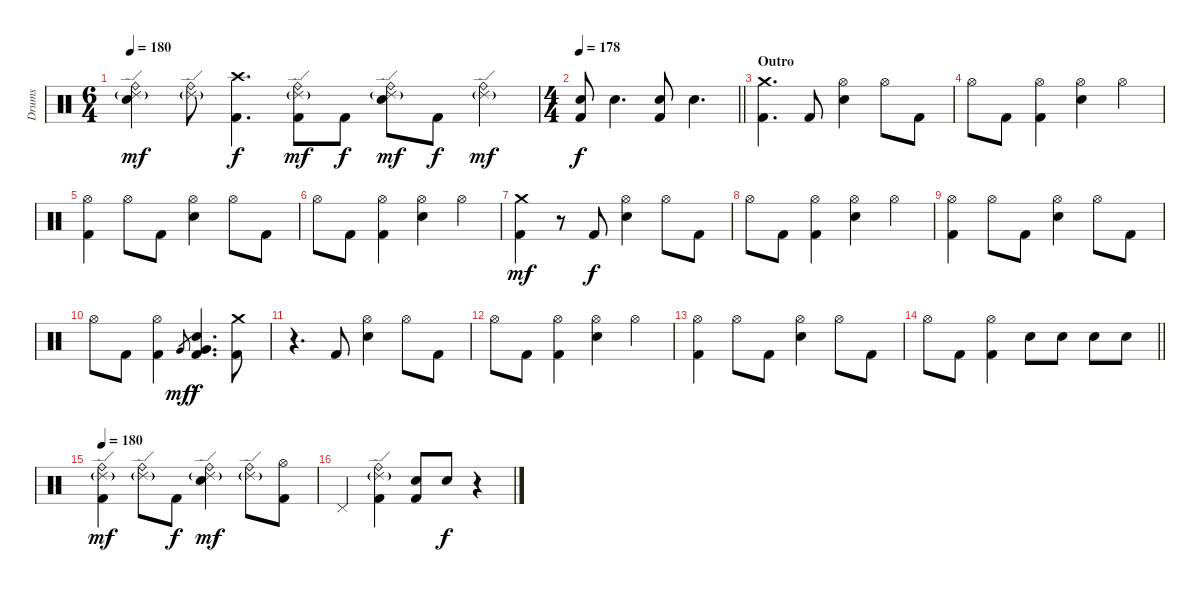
\track ("Drums" "Drums") {instrument percussion}
\staff {score}
\articulation defaults
\ts (6 4)
\tempo 180
\clef neutral
\ks c
("Ride (bell)" "Ride (edge) 2"{g} "Electric Snare (hit)").4{dy mf} ("Ride (bell)" "Ride (edge) 2"{g}).8 ("Crash high (hit)" "Kick (hit) 2").4{d dy f} ("Ride (bell)" "Ride (edge) 2"{g} "Kick (hit) 2").8{dy mf} "Kick (hit) 2".8{dy f} ("Ride (bell)" "Ride (edge) 2"{g} "Electric Snare (hit)").8{dy mf} "Kick (hit) 2".8{dy f} ("Ride (bell)" "Ride (edge) 2"{g}).4{dy mf} |
\ts (4 4)
\tempo 178
\barLineRight lightlight
("Electric Snare (hit)" "Kick (hit) 2").8{dy f} "Electric Snare (hit)".4{d} ("Electric Snare (hit)" "Kick (hit) 2").8 "Electric Snare (hit)".4{d} |
\section ("" "Outro")
("Crash medium (hit)" "Kick (hit) 2").4{d} "Kick (hit) 2".8 ("Hi-Hat (open)" "Electric Snare (hit)").4 "Hi-Hat (open)".8 "Kick (hit) 2".8 |
"Hi-Hat (open)".8 "Kick (hit) 2".8 ("Hi-Hat (open)" "Kick (hit) 2").4 ("Hi-Hat (open)" "Electric Snare (hit)").4 "Hi-Hat (open)".4 |
("Hi-Hat (open)" "Kick (hit) 2").4 "Hi-Hat (open)".8 "Kick (hit) 2".8 ("Hi-Hat (open)" "Electric Snare (hit)").4 "Hi-Hat (open)".8 "Kick (hit) 2".8 |
"Hi-Hat (open)".8 "Kick (hit) 2".8 ("Hi-Hat (open)" "Kick (hit) 2").4 ("Hi-Hat (open)" "Electric Snare (hit)").4 "Hi-Hat (open)".4 |
("Crash medium (hit)" "Kick (hit) 2").4{dy mf} r.8 "Kick (hit) 2".8{dy f} ("Hi-Hat (open)" "Electric Snare (hit)").4 "Hi-Hat (open)".8 "Kick (hit) 2".8 |
"Hi-Hat (open)".8 "Kick (hit) 2".8 ("Hi-Hat (open)" "Kick (hit) 2").4 ("Hi-Hat (open)" "Electric Snare (hit)").4 "Hi-Hat (open)".4 |
("Hi-Hat (open)" "Kick (hit) 2").4 "Hi-Hat (open)".8 "Kick (hit) 2".8 ("Hi-Hat (open)" "Electric Snare (hit)").4 "Hi-Hat (open)".8 "Kick (hit) 2".8 |
"Hi-Hat (open)".8 "Kick (hit) 2".8 ("Hi-Hat (open)" "Kick (hit) 2").4 "Very Low Tom (hit)".8{gr dy mf} ("Very Low Tom (hit)" "Electric Snare (hit)" "Kick (hit) 2").4{d dy f} ("Crash medium (hit)" "Kick (hit) 2").8 |
r.4{d} "Kick (hit) 2".8 ("Hi-Hat (open)" "Electric Snare (hit)").4 "Hi-Hat (open)".8 "Kick (hit) 2".8 |
"Hi-Hat (open)".8 "Kick (hit) 2".8 ("Hi-Hat (open)" "Kick (hit) 2").4 ("Hi-Hat (open)" "Electric Snare (hit)").4 "Hi-Hat (open)".4 |
("Hi-Hat (open)" "Kick (hit) 2").4 "Hi-Hat (open)".8 "Kick (hit) 2".8 ("Hi-Hat (open)" "Electric Snare (hit)").4 "Hi-Hat (open)".8 "Kick (hit) 2".8 |
\barLineRight lightlight "Hi-Hat (open)".8 "Kick (hit) 2".8
("Hi-Hat (open)" "Kick (hit) 2").4 "Electric Snare (hit)".8 "Electric Snare (hit)".8 "Electric Snare (hit)".8 "Electric Snare (hit)".8 |
\tempo 180
("Ride (bell)" "Ride (edge) 2"{g} "Kick (hit) 2").4{dy mf} ("Ride (bell)" "Ride (edge) 2"{g}).8 "Kick (hit) 2".8{dy f} ("Ride (bell)" "Ride (edge) 2"{g} "Electric Snare (hit)").4{dy mf} ("Ride (bell)" "Ride (edge) 2"{g}).8 ("Hi-Hat (open)" "Kick (hit) 2").8 |
"Pedal Hi-Hat (hit)".4 ("Ride (bell)" "Ride (edge) 2"{g} "Kick (hit) 2").4 ("Electric Snare (hit)" "Kick (hit) 2").8 "Electric Snare (hit)".8{dy f} r.4
